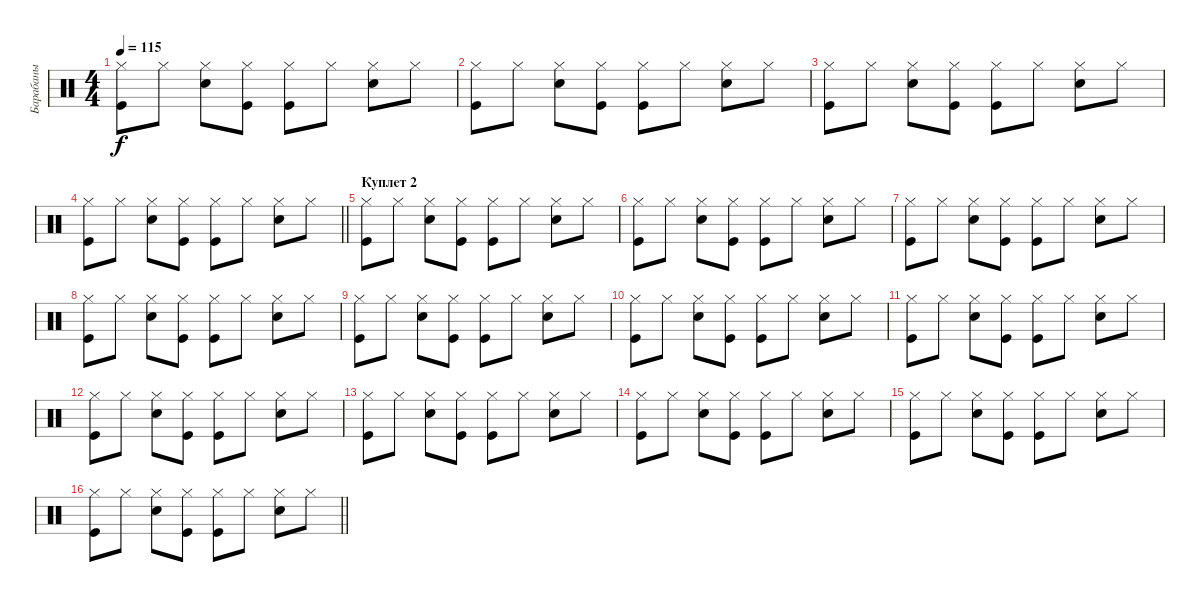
\track ("Барабаны" "Барабаны") {instrument percussion}
\staff {score}
\articulation defaults
\ts (4 4)
\tempo 115
\clef neutral
\ks c
("Kick (hit)" "Hi-Hat (closed)").8{dy f} "Hi-Hat (closed)".8 ("Snare (hit) 2" "Hi-Hat (closed)").8 ("Kick (hit)" "Hi-Hat (closed)").8 ("Kick (hit)" "Hi-Hat (closed)").8 "Hi-Hat (closed)".8 ("Snare (hit) 2" "Hi-Hat (closed)").8 "Hi-Hat (closed)".8 |
("Kick (hit)" "Hi-Hat (closed)").8 "Hi-Hat (closed)".8 ("Snare (hit) 2" "Hi-Hat (closed)").8 ("Kick (hit)" "Hi-Hat (closed)").8 ("Kick (hit)" "Hi-Hat (closed)").8 "Hi-Hat (closed)".8 ("Snare (hit) 2" "Hi-Hat (closed)").8 "Hi-Hat (closed)".8 |
("Kick (hit)" "Hi-Hat (closed)").8 "Hi-Hat (closed)".8 ("Snare (hit) 2" "Hi-Hat (closed)").8 ("Kick (hit)" "Hi-Hat (closed)").8 ("Kick (hit)" "Hi-Hat (closed)").8 "Hi-Hat (closed)".8 ("Snare (hit) 2" "Hi-Hat (closed)").8 "Hi-Hat (closed)".8 |
\barLineRight lightlight
("Kick (hit)" "Hi-Hat (closed)").8 "Hi-Hat (closed)".8 ("Snare (hit) 2" "Hi-Hat (closed)").8 ("Kick (hit)" "Hi-Hat (closed)").8 ("Kick (hit)" "Hi-Hat (closed)").8 "Hi-Hat (closed)".8 ("Snare (hit) 2" "Hi-Hat (closed)").8 "Hi-Hat (closed)".8 |
\section ("" "Куплет 2")
("Kick (hit)" "Hi-Hat (closed)").8 "Hi-Hat (closed)".8 ("Snare (hit) 2" "Hi-Hat (closed)").8 ("Kick (hit)" "Hi-Hat (closed)").8 ("Kick (hit)" "Hi-Hat (closed)").8 "Hi-Hat (closed)".8 ("Snare (hit) 2" "Hi-Hat (closed)").8 "Hi-Hat (closed)".8 |
("Kick (hit)" "Hi-Hat (closed)").8 "Hi-Hat (closed)".8 ("Snare (hit) 2" "Hi-Hat (closed)").8 ("Kick (hit)" "Hi-Hat (closed)").8 ("Kick (hit)" "Hi-Hat (closed)").8 "Hi-Hat (closed)".8 ("Snare (hit) 2" "Hi-Hat (closed)").8 "Hi-Hat (closed)".8 |
("Kick (hit)" "Hi-Hat (closed)").8 "Hi-Hat (closed)".8 ("Snare (hit) 2" "Hi-Hat (closed)").8 ("Kick (hit)" "Hi-Hat (closed)").8 ("Kick (hit)" "Hi-Hat (closed)").8 "Hi-Hat (closed)".8 ("Snare (hit) 2" "Hi-Hat (closed)").8 "Hi-Hat (closed)".8 |
("Kick (hit)" "Hi-Hat (closed)").8 "Hi-Hat (closed)".8 ("Snare (hit) 2" "Hi-Hat (closed)").8 ("Kick (hit)" "Hi-Hat (closed)").8 ("Kick (hit)" "Hi-Hat (closed)").8 "Hi-Hat (closed)".8 ("Snare (hit) 2" "Hi-Hat (closed)").8 "Hi-Hat (closed)".8 |
("Kick (hit)" "Hi-Hat (closed)").8 "Hi-Hat (closed)".8 ("Snare (hit) 2" "Hi-Hat (closed)").8 ("Kick (hit)" "Hi-Hat (closed)").8 ("Kick (hit)" "Hi-Hat (closed)").8 "Hi-Hat (closed)".8 ("Snare (hit) 2" "Hi-Hat (closed)").8 "Hi-Hat (closed)".8 |
("Kick (hit)" "Hi-Hat (closed)").8 "Hi-Hat (closed)".8 ("Snare (hit) 2" "Hi-Hat (closed)").8 ("Kick (hit)" "Hi-Hat (closed)").8 ("Kick (hit)" "Hi-Hat (closed)").8 "Hi-Hat (closed)".8 ("Snare (hit) 2" "Hi-Hat (closed)").8 "Hi-Hat (closed)".8 |
("Kick (hit)" "Hi-Hat (closed)").8 "Hi-Hat (closed)".8 ("Snare (hit) 2" "Hi-Hat (closed)").8 ("Kick (hit)" "Hi-Hat (closed)").8 ("Kick (hit)" "Hi-Hat (closed)").8 "Hi-Hat (closed)".8 ("Snare (hit) 2" "Hi-Hat (closed)").8 "Hi-Hat (closed)".8 |
("Kick (hit)" "Hi-Hat (closed)").8 "Hi-Hat (closed)".8 ("Snare (hit) 2" "Hi-Hat (closed)").8 ("Kick (hit)" "Hi-Hat (closed)").8 ("Kick (hit)" "Hi-Hat (closed)").8 "Hi-Hat (closed)".8 ("Snare (hit) 2" "Hi-Hat (closed)").8 "Hi-Hat (closed)".8 |
("Kick (hit)" "Hi-Hat (closed)").8 "Hi-Hat (closed)".8 ("Snare (hit) 2" "Hi-Hat (closed)").8 ("Kick (hit)" "Hi-Hat (closed)").8 ("Kick (hit)" "Hi-Hat (closed)").8 "Hi-Hat (closed)".8 ("Snare (hit) 2" "Hi-Hat (closed)").8 "Hi-Hat (closed)".8 |
("Kick (hit)" "Hi-Hat (closed)").8 "Hi-Hat (closed)".8 ("Snare (hit) 2" "Hi-Hat (closed)").8 ("Kick (hit)" "Hi-Hat (closed)").8 ("Kick (hit)" "Hi-Hat (closed)").8 "Hi-Hat (closed)".8 ("Snare (hit) 2" "Hi-Hat (closed)").8 "Hi-Hat (closed)".8 |
("Kick (hit)" "Hi-Hat (closed)").8 "Hi-Hat (closed)".8 ("Snare (hit) 2" "Hi-Hat (closed)").8 ("Kick (hit)" "Hi-Hat (closed)").8 ("Kick (hit)" "Hi-Hat (closed)").8 "Hi-Hat (closed)".8 ("Snare (hit) 2" "Hi-Hat (closed)").8 "Hi-Hat (closed)".8 |
\barLineRight lightlight
("Kick (hit)" "Hi-Hat (closed)").8 "Hi-Hat (closed)".8 ("Snare (hit) 2" "Hi-Hat (closed)").8 ("Kick (hit)" "Hi-Hat (closed)").8 ("Kick (hit)" "Hi-Hat (closed)").8 "Hi-Hat (closed)".8 ("Snare (hit) 2" "Hi-Hat (closed)").8 "Hi-Hat (closed)".8
